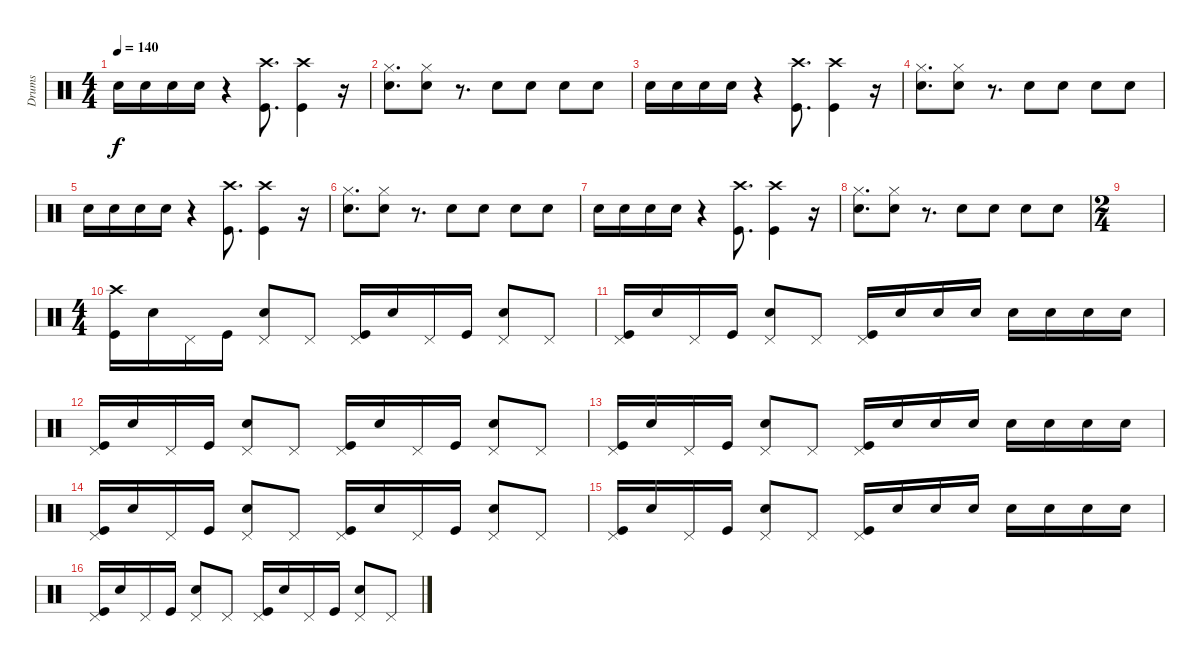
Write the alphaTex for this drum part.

\track ("Drums" "Drums") {instrument percussion}
\staff {score}
\articulation defaults
\ts (4 4)
\tempo 140
\clef neutral
\ks c "Snare (hit) 2".16{dy f} "Snare (hit) 2".16 "Snare (hit) 2".16 "Snare (hit) 2".16
r.4 ("Kick (hit)" "Crash high (hit)").8{d} ("Kick (hit)" "Crash high (hit)").4 r.16 |
("Snare (hit) 2" "Hi-Hat (closed)").8{d} ("Snare (hit) 2" "Hi-Hat (closed)").8 r.8{d} "Snare (hit) 2".8 "Snare (hit) 2".8 "Snare (hit) 2".8 "Snare (hit) 2".8 |
"Snare (hit) 2".16 "Snare (hit) 2".16 "Snare (hit) 2".16 "Snare (hit) 2".16 r.4 ("Kick (hit)" "Crash high (hit)").8{d} ("Kick (hit)" "Crash high (hit)").4 r.16 |
("Snare (hit) 2" "Hi-Hat (closed)").8{d} ("Snare (hit) 2" "Hi-Hat (closed)").8 r.8{d} "Snare (hit) 2".8 "Snare (hit) 2".8 "Snare (hit) 2".8 "Snare (hit) 2".8 |
"Snare (hit) 2".16 "Snare (hit) 2".16 "Snare (hit) 2".16 "Snare (hit) 2".16 r.4 ("Kick (hit)" "Crash high (hit)").8{d} ("Kick (hit)" "Crash high (hit)").4 r.16 |
("Snare (hit) 2" "Hi-Hat (closed)").8{d} ("Snare (hit) 2" "Hi-Hat (closed)").8 r.8{d} "Snare (hit) 2".8 "Snare (hit) 2".8 "Snare (hit) 2".8 "Snare (hit) 2".8 |
"Snare (hit) 2".16 "Snare (hit) 2".16 "Snare (hit) 2".16 "Snare (hit) 2".16 r.4 ("Kick (hit)" "Crash high (hit)").8{d} ("Kick (hit)" "Crash high (hit)").4 r.16 |
("Snare (hit) 2" "Hi-Hat (closed)").8{d} ("Snare (hit) 2" "Hi-Hat (closed)").8 r.8{d} "Snare (hit) 2".8 "Snare (hit) 2".8 "Snare (hit) 2".8 "Snare (hit) 2".8 |
\ts (2 4)
|
\ts (4 4)
("Kick (hit)" "Crash high (hit)").16 "Snare (hit) 2".16 "Pedal Hi-Hat (hit)".16 "Kick (hit)".16 ("Snare (hit) 2" "Pedal Hi-Hat (hit)").8 "Pedal Hi-Hat (hit)".8 ("Kick (hit)" "Pedal Hi-Hat (hit)").16 "Snare (hit) 2".16 "Pedal Hi-Hat (hit)".16 "Kick (hit)".16 ("Snare (hit) 2" "Pedal Hi-Hat (hit)").8 "Pedal Hi-Hat (hit)".8 |
("Kick (hit)" "Pedal Hi-Hat (hit)").16 "Snare (hit) 2".16 "Pedal Hi-Hat (hit)".16 "Kick (hit)".16 ("Snare (hit) 2" "Pedal Hi-Hat (hit)").8 "Pedal Hi-Hat (hit)".8 ("Kick (hit)" "Pedal Hi-Hat (hit)").16 "Snare (hit) 2".16 "Snare (hit) 2".16 "Snare (hit) 2".16 "Snare (hit) 2".16 "Snare (hit) 2".16 "Snare (hit) 2".16 "Snare (hit) 2".16 |
("Kick (hit)" "Pedal Hi-Hat (hit)").16 "Snare (hit) 2".16 "Pedal Hi-Hat (hit)".16 "Kick (hit)".16 ("Snare (hit) 2" "Pedal Hi-Hat (hit)").8 "Pedal Hi-Hat (hit)".8 ("Kick (hit)" "Pedal Hi-Hat (hit)").16 "Snare (hit) 2".16 "Pedal Hi-Hat (hit)".16 "Kick (hit)".16 ("Snare (hit) 2" "Pedal Hi-Hat (hit)").8 "Pedal Hi-Hat (hit)".8 |
("Kick (hit)" "Pedal Hi-Hat (hit)").16 "Snare (hit) 2".16 "Pedal Hi-Hat (hit)".16 "Kick (hit)".16 ("Snare (hit) 2" "Pedal Hi-Hat (hit)").8 "Pedal Hi-Hat (hit)".8 ("Kick (hit)" "Pedal Hi-Hat (hit)").16 "Snare (hit) 2".16 "Snare (hit) 2".16 "Snare (hit) 2".16 "Snare (hit) 2".16 "Snare (hit) 2".16 "Snare (hit) 2".16 "Snare (hit) 2".16 |
("Kick (hit)" "Pedal Hi-Hat (hit)").16 "Snare (hit) 2".16 "Pedal Hi-Hat (hit)".16 "Kick (hit)".16 ("Snare (hit) 2" "Pedal Hi-Hat (hit)").8 "Pedal Hi-Hat (hit)".8 ("Kick (hit)" "Pedal Hi-Hat (hit)").16 "Snare (hit) 2".16 "Pedal Hi-Hat (hit)".16 "Kick (hit)".16 ("Snare (hit) 2" "Pedal Hi-Hat (hit)").8 "Pedal Hi-Hat (hit)".8 |
("Kick (hit)" "Pedal Hi-Hat (hit)").16 "Snare (hit) 2".16 "Pedal Hi-Hat (hit)".16 "Kick (hit)".16 ("Snare (hit) 2" "Pedal Hi-Hat (hit)").8 "Pedal Hi-Hat (hit)".8 ("Kick (hit)" "Pedal Hi-Hat (hit)").16 "Snare (hit) 2".16 "Snare (hit) 2".16 "Snare (hit) 2".16 "Snare (hit) 2".16 "Snare (hit) 2".16 "Snare (hit) 2".16 "Snare (hit) 2".16 |
("Kick (hit)" "Pedal Hi-Hat (hit)").16 "Snare (hit) 2".16 "Pedal Hi-Hat (hit)".16 "Kick (hit)".16 ("Snare (hit) 2" "Pedal Hi-Hat (hit)").8 "Pedal Hi-Hat (hit)".8 ("Kick (hit)" "Pedal Hi-Hat (hit)").16 "Snare (hit) 2".16 "Pedal Hi-Hat (hit)".16 "Kick (hit)".16 ("Snare (hit) 2" "Pedal Hi-Hat (hit)").8 "Pedal Hi-Hat (hit)".8
